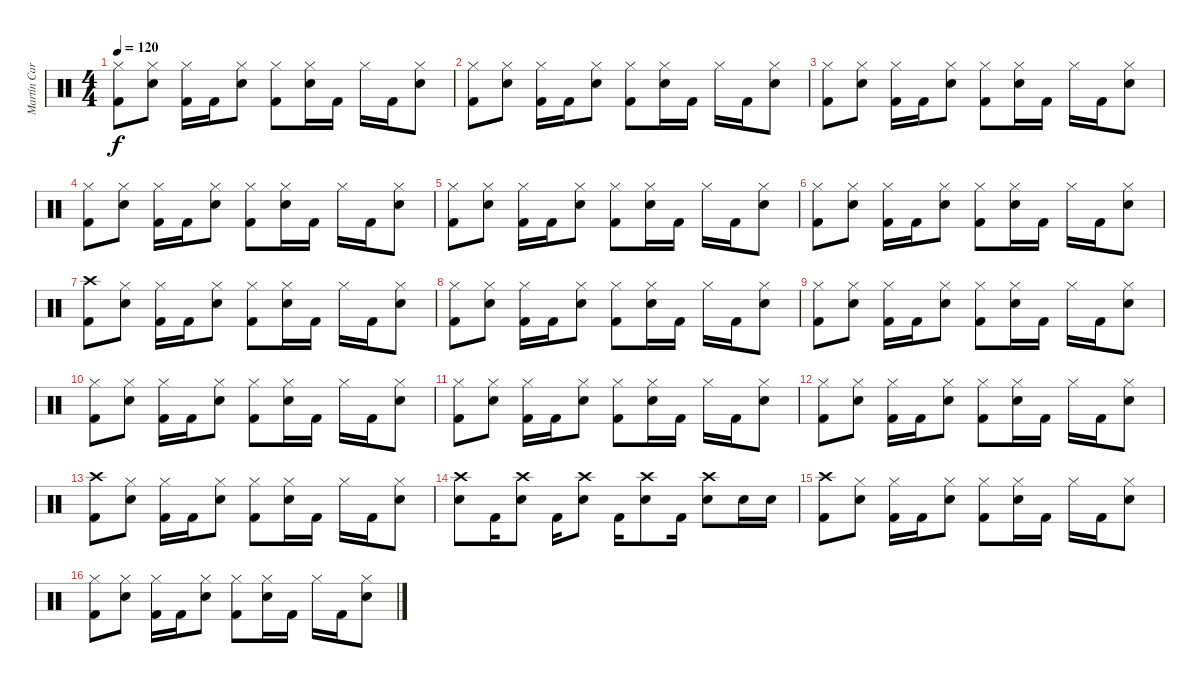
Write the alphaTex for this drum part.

\track ("Martín Carrizo" "Martín Car") {instrument percussion}
\staff {score}
\articulation defaults
\ts (4 4)
\tempo 120
\clef neutral
\ks c
("Hi-Hat (closed)" "Kick (hit) 2").8{dy f} ("Hi-Hat (closed)" "Snare (hit) 2").8 ("Hi-Hat (closed)" "Kick (hit) 2").16 "Kick (hit) 2".16 ("Hi-Hat (closed)" "Snare (hit) 2").8 ("Hi-Hat (closed)" "Kick (hit) 2").8 ("Hi-Hat (closed)" "Snare (hit) 2").16 "Kick (hit) 2".16 "Hi-Hat (closed)".16 "Kick (hit) 2".16 ("Hi-Hat (closed)" "Snare (hit) 2").8 |
("Hi-Hat (closed)" "Kick (hit) 2").8 ("Hi-Hat (closed)" "Snare (hit) 2").8 ("Hi-Hat (closed)" "Kick (hit) 2").16 "Kick (hit) 2".16 ("Hi-Hat (closed)" "Snare (hit) 2").8 ("Hi-Hat (closed)" "Kick (hit) 2").8 ("Hi-Hat (closed)" "Snare (hit) 2").16 "Kick (hit) 2".16 "Hi-Hat (closed)".16 "Kick (hit) 2".16 ("Hi-Hat (closed)" "Snare (hit) 2").8 |
("Hi-Hat (closed)" "Kick (hit) 2").8 ("Hi-Hat (closed)" "Snare (hit) 2").8 ("Hi-Hat (closed)" "Kick (hit) 2").16 "Kick (hit) 2".16 ("Hi-Hat (closed)" "Snare (hit) 2").8 ("Hi-Hat (closed)" "Kick (hit) 2").8 ("Hi-Hat (closed)" "Snare (hit) 2").16 "Kick (hit) 2".16 "Hi-Hat (closed)".16 "Kick (hit) 2".16 ("Hi-Hat (closed)" "Snare (hit) 2").8 |
("Hi-Hat (closed)" "Kick (hit) 2").8 ("Hi-Hat (closed)" "Snare (hit) 2").8 ("Hi-Hat (closed)" "Kick (hit) 2").16 "Kick (hit) 2".16 ("Hi-Hat (closed)" "Snare (hit) 2").8 ("Hi-Hat (closed)" "Kick (hit) 2").8 ("Hi-Hat (closed)" "Snare (hit) 2").16 "Kick (hit) 2".16 "Hi-Hat (closed)".16 "Kick (hit) 2".16 ("Hi-Hat (closed)" "Snare (hit) 2").8 |
("Hi-Hat (closed)" "Kick (hit) 2").8 ("Hi-Hat (closed)" "Snare (hit) 2").8 ("Hi-Hat (closed)" "Kick (hit) 2").16 "Kick (hit) 2".16 ("Hi-Hat (closed)" "Snare (hit) 2").8 ("Hi-Hat (closed)" "Kick (hit) 2").8 ("Hi-Hat (closed)" "Snare (hit) 2").16 "Kick (hit) 2".16 "Hi-Hat (closed)".16 "Kick (hit) 2".16 ("Hi-Hat (closed)" "Snare (hit) 2").8 |
("Hi-Hat (closed)" "Kick (hit) 2").8 ("Hi-Hat (closed)" "Snare (hit) 2").8 ("Hi-Hat (closed)" "Kick (hit) 2").16 "Kick (hit) 2".16 ("Hi-Hat (closed)" "Snare (hit) 2").8 ("Hi-Hat (closed)" "Kick (hit) 2").8 ("Hi-Hat (closed)" "Snare (hit) 2").16 "Kick (hit) 2".16 "Hi-Hat (closed)".16 "Kick (hit) 2".16 ("Hi-Hat (closed)" "Snare (hit) 2").8 |
("Crash high (hit)" "Kick (hit) 2").8 ("Hi-Hat (closed)" "Snare (hit) 2").8 ("Hi-Hat (closed)" "Kick (hit) 2").16 "Kick (hit) 2".16 ("Hi-Hat (closed)" "Snare (hit) 2").8 ("Hi-Hat (closed)" "Kick (hit) 2").8 ("Hi-Hat (closed)" "Snare (hit) 2").16 "Kick (hit) 2".16 "Hi-Hat (closed)".16 "Kick (hit) 2".16 ("Hi-Hat (closed)" "Snare (hit) 2").8 |
("Hi-Hat (closed)" "Kick (hit) 2").8 ("Hi-Hat (closed)" "Snare (hit) 2").8 ("Hi-Hat (closed)" "Kick (hit) 2").16 "Kick (hit) 2".16 ("Hi-Hat (closed)" "Snare (hit) 2").8 ("Hi-Hat (closed)" "Kick (hit) 2").8 ("Hi-Hat (closed)" "Snare (hit) 2").16 "Kick (hit) 2".16 "Hi-Hat (closed)".16 "Kick (hit) 2".16 ("Hi-Hat (closed)" "Snare (hit) 2").8 |
("Hi-Hat (closed)" "Kick (hit) 2").8 ("Hi-Hat (closed)" "Snare (hit) 2").8 ("Hi-Hat (closed)" "Kick (hit) 2").16 "Kick (hit) 2".16 ("Hi-Hat (closed)" "Snare (hit) 2").8 ("Hi-Hat (closed)" "Kick (hit) 2").8 ("Hi-Hat (closed)" "Snare (hit) 2").16 "Kick (hit) 2".16 "Hi-Hat (closed)".16 "Kick (hit) 2".16 ("Hi-Hat (closed)" "Snare (hit) 2").8 |
("Hi-Hat (closed)" "Kick (hit) 2").8 ("Hi-Hat (closed)" "Snare (hit) 2").8 ("Hi-Hat (closed)" "Kick (hit) 2").16 "Kick (hit) 2".16 ("Hi-Hat (closed)" "Snare (hit) 2").8 ("Hi-Hat (closed)" "Kick (hit) 2").8 ("Hi-Hat (closed)" "Snare (hit) 2").16 "Kick (hit) 2".16 "Hi-Hat (closed)".16 "Kick (hit) 2".16 ("Hi-Hat (closed)" "Snare (hit) 2").8 |
("Hi-Hat (closed)" "Kick (hit) 2").8 ("Hi-Hat (closed)" "Snare (hit) 2").8 ("Hi-Hat (closed)" "Kick (hit) 2").16 "Kick (hit) 2".16 ("Hi-Hat (closed)" "Snare (hit) 2").8 ("Hi-Hat (closed)" "Kick (hit) 2").8 ("Hi-Hat (closed)" "Snare (hit) 2").16 "Kick (hit) 2".16 "Hi-Hat (closed)".16 "Kick (hit) 2".16 ("Hi-Hat (closed)" "Snare (hit) 2").8 |
("Hi-Hat (closed)" "Kick (hit) 2").8 ("Hi-Hat (closed)" "Snare (hit) 2").8 ("Hi-Hat (closed)" "Kick (hit) 2").16 "Kick (hit) 2".16 ("Hi-Hat (closed)" "Snare (hit) 2").8 ("Hi-Hat (closed)" "Kick (hit) 2").8 ("Hi-Hat (closed)" "Snare (hit) 2").16 "Kick (hit) 2".16 "Hi-Hat (closed)".16 "Kick (hit) 2".16 ("Hi-Hat (closed)" "Snare (hit) 2").8 |
("Crash high (hit)" "Kick (hit) 2").8 ("Hi-Hat (closed)" "Snare (hit) 2").8 ("Hi-Hat (closed)" "Kick (hit) 2").16 "Kick (hit) 2".16 ("Hi-Hat (closed)" "Snare (hit) 2").8 ("Hi-Hat (closed)" "Kick (hit) 2").8 ("Hi-Hat (closed)" "Snare (hit) 2").16 "Kick (hit) 2".16 "Hi-Hat (closed)".16 "Kick (hit) 2".16 ("Hi-Hat (closed)" "Snare (hit) 2").8 |
("Crash high (hit)" "Snare (hit) 2").8 "Kick (hit) 2".16 ("Crash high (hit)" "Snare (hit) 2").8 "Kick (hit) 2".16 ("Crash high (hit)" "Snare (hit) 2").8 "Kick (hit) 2".16 ("Crash high (hit)" "Snare (hit) 2").8 "Kick (hit) 2".16 ("Crash high (hit)" "Snare (hit) 2").8 "Snare (hit) 2".16 "Snare (hit) 2".16 |
("Crash high (hit)" "Kick (hit) 2").8 ("Hi-Hat (closed)" "Snare (hit) 2").8 ("Hi-Hat (closed)" "Kick (hit) 2").16 "Kick (hit) 2".16 ("Hi-Hat (closed)" "Snare (hit) 2").8 ("Hi-Hat (closed)" "Kick (hit) 2").8 ("Hi-Hat (closed)" "Snare (hit) 2").16 "Kick (hit) 2".16 "Hi-Hat (closed)".16 "Kick (hit) 2".16 ("Hi-Hat (closed)" "Snare (hit) 2").8 |
("Hi-Hat (closed)" "Kick (hit) 2").8 ("Hi-Hat (closed)" "Snare (hit) 2").8 ("Hi-Hat (closed)" "Kick (hit) 2").16 "Kick (hit) 2".16 ("Hi-Hat (closed)" "Snare (hit) 2").8 ("Hi-Hat (closed)" "Kick (hit) 2").8 ("Hi-Hat (closed)" "Snare (hit) 2").16 "Kick (hit) 2".16 "Hi-Hat (closed)".16 "Kick (hit) 2".16 ("Hi-Hat (closed)" "Snare (hit) 2").8
